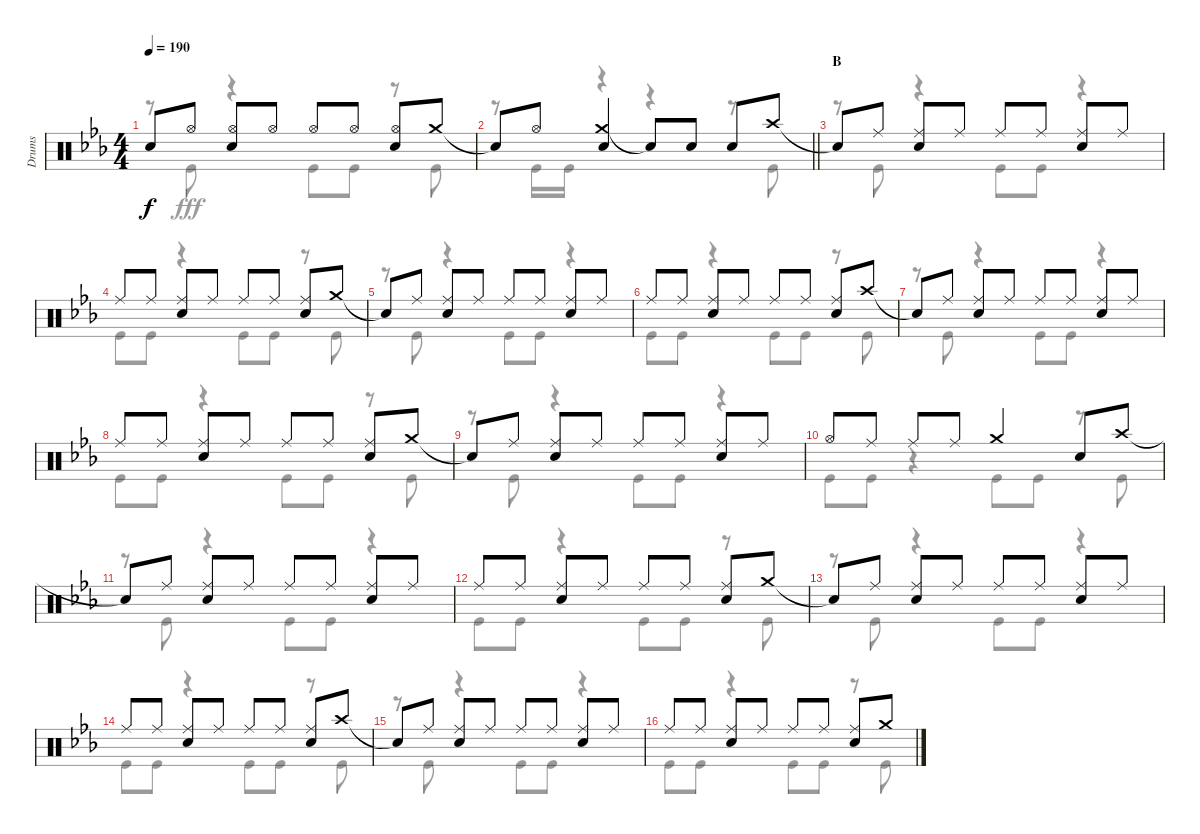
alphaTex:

\track ("Drums" "Drums") {instrument percussion}
\staff {score}
\articulation defaults
\voice
\ts (4 4)
\tempo 190
\clef neutral
\ks eb "Snare (hit)"{t}.8{dy f} "Hi-Hat (open)".8
("Hi-Hat (open)" "Snare (hit) 2").8 "Hi-Hat (open)".8 "Hi-Hat (open)".8 "Hi-Hat (open)".8 ("Hi-Hat (open)" "Snare (hit) 2").8 "Crash medium (hit)".8 |
\barLineRight lightlight "Snare (hit)"{t}.8 "Hi-Hat (open)".8
("Crash medium (hit)" "Snare (hit) 2").4 "Snare (hit)"{t}.8 "Snare (hit) 2".8 "Snare (hit) 2".8 "Crash high (hit)".8 |
\section ("" "B")
"Snare (hit)"{t}.8 "Ride (middle)".8 ("Ride (middle)" "Snare (hit) 2").8 "Ride (middle)".8 "Ride (middle)".8 "Ride (middle)".8 ("Ride (middle)" "Snare (hit) 2").8 "Ride (middle)".8 |
"Ride (middle)".8 "Ride (middle)".8 ("Ride (middle)" "Snare (hit) 2").8 "Ride (middle)".8 "Ride (middle)".8 "Ride (middle)".8 ("Ride (middle)" "Snare (hit) 2").8 "Crash medium (hit)".8 |
"Snare (hit)"{t}.8 "Ride (middle)".8 ("Ride (middle)" "Snare (hit) 2").8 "Ride (middle)".8 "Ride (middle)".8 "Ride (middle)".8 ("Ride (middle)" "Snare (hit) 2").8 "Ride (middle)".8 |
"Ride (middle)".8 "Ride (middle)".8 ("Ride (middle)" "Snare (hit) 2").8 "Ride (middle)".8 "Ride (middle)".8 "Ride (middle)".8 ("Ride (middle)" "Snare (hit) 2").8 "Crash high (hit)".8 |
"Snare (hit)"{t}.8 "Ride (middle)".8 ("Ride (middle)" "Snare (hit) 2").8 "Ride (middle)".8 "Ride (middle)".8 "Ride (middle)".8 ("Ride (middle)" "Snare (hit) 2").8 "Ride (middle)".8 |
"Ride (middle)".8 "Ride (middle)".8 ("Ride (middle)" "Snare (hit) 2").8 "Ride (middle)".8 "Ride (middle)".8 "Ride (middle)".8 ("Ride (middle)" "Snare (hit) 2").8 "Crash medium (hit)".8 |
"Snare (hit)"{t}.8 "Ride (middle)".8 ("Ride (middle)" "Snare (hit) 2").8 "Ride (middle)".8 "Ride (middle)".8 "Ride (middle)".8 ("Ride (middle)" "Snare (hit) 2").8 "Ride (middle)".8 |
"Hi-Hat (open)".8 "Ride (middle)".8 "Ride (middle)".8 "Ride (middle)".8 "Crash medium (hit)".4 "Snare (hit) 2".8 "Crash high (hit)".8 |
"Snare (hit)"{t}.8 "Ride (middle)".8 ("Ride (middle)" "Snare (hit) 2").8 "Ride (middle)".8 "Ride (middle)".8 "Ride (middle)".8 ("Ride (middle)" "Snare (hit) 2").8 "Ride (middle)".8 |
"Ride (middle)".8 "Ride (middle)".8 ("Ride (middle)" "Snare (hit) 2").8 "Ride (middle)".8 "Ride (middle)".8 "Ride (middle)".8 ("Ride (middle)" "Snare (hit) 2").8 "Crash medium (hit)".8 |
"Snare (hit)"{t}.8 "Ride (middle)".8 ("Ride (middle)" "Snare (hit) 2").8 "Ride (middle)".8 "Ride (middle)".8 "Ride (middle)".8 ("Ride (middle)" "Snare (hit) 2").8 "Ride (middle)".8 |
"Ride (middle)".8 "Ride (middle)".8 ("Ride (middle)" "Snare (hit) 2").8 "Ride (middle)".8 "Ride (middle)".8 "Ride (middle)".8 ("Ride (middle)" "Snare (hit) 2").8 "Crash high (hit)".8 |
"Snare (hit)"{t}.8 "Ride (middle)".8 ("Ride (middle)" "Snare (hit) 2").8 "Ride (middle)".8 "Ride (middle)".8 "Ride (middle)".8 ("Ride (middle)" "Snare (hit) 2").8 "Ride (middle)".8 |
"Ride (middle)".8 "Ride (middle)".8 ("Ride (middle)" "Snare (hit) 2").8 "Ride (middle)".8 "Ride (middle)".8 "Ride (middle)".8 ("Ride (middle)" "Snare (hit) 2").8 "Crash medium (hit)".8
\voice
\clef neutral
\ottava regular
\simile none
\ks eb
r.8{dy fff} "Kick (hit)".8 r.4 "Kick (hit)".8 "Kick (hit)".8 r.8 "Kick (hit)".8 |
\barLineRight lightlight
r.8 "Kick (hit)".16 "Kick (hit)".16 r.4 r.4 r.8 "Kick (hit)".8 |
r.8 "Kick (hit)".8 r.4 "Kick (hit)".8 "Kick (hit)".8 r.4 |
"Kick (hit)".8 "Kick (hit)".8 r.4 "Kick (hit)".8 "Kick (hit)".8 r.8 "Kick (hit)".8 |
r.8 "Kick (hit)".8 r.4 "Kick (hit)".8 "Kick (hit)".8 r.4 |
"Kick (hit)".8 "Kick (hit)".8 r.4 "Kick (hit)".8 "Kick (hit)".8 r.8 "Kick (hit)".8 |
r.8 "Kick (hit)".8 r.4 "Kick (hit)".8 "Kick (hit)".8 r.4 |
"Kick (hit)".8 "Kick (hit)".8 r.4 "Kick (hit)".8 "Kick (hit)".8 r.8 "Kick (hit)".8 |
r.8 "Kick (hit)".8 r.4 "Kick (hit)".8 "Kick (hit)".8 r.4 |
"Kick (hit)".8 "Kick (hit)".8 r.4 "Kick (hit)".8 "Kick (hit)".8 r.8 "Kick (hit)".8 |
r.8 "Kick (hit)".8 r.4 "Kick (hit)".8 "Kick (hit)".8 r.4 |
"Kick (hit)".8 "Kick (hit)".8 r.4 "Kick (hit)".8 "Kick (hit)".8 r.8 "Kick (hit)".8 |
r.8 "Kick (hit)".8 r.4 "Kick (hit)".8 "Kick (hit)".8 r.4 |
"Kick (hit)".8 "Kick (hit)".8 r.4 "Kick (hit)".8 "Kick (hit)".8 r.8 "Kick (hit)".8 |
r.8 "Kick (hit)".8 r.4 "Kick (hit)".8 "Kick (hit)".8 r.4 |
"Kick (hit)".8 "Kick (hit)".8 r.4 "Kick (hit)".8 "Kick (hit)".8 r.8 "Kick (hit)".8
